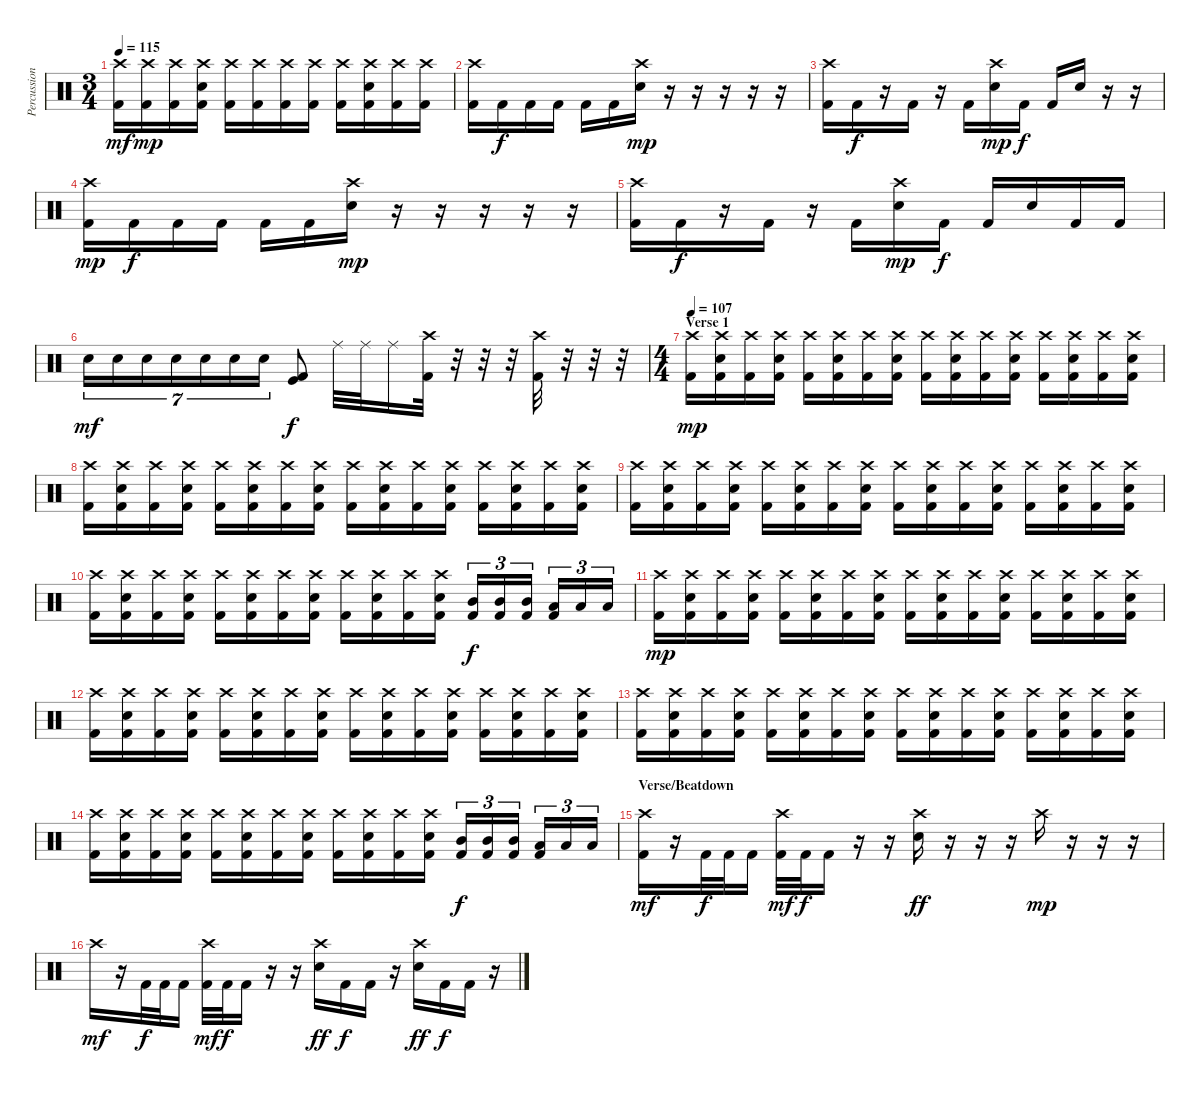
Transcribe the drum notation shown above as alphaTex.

\track ("Percussion" "Percussion") {instrument percussion}
\staff {score}
\articulation defaults
\ts (3 4)
\tempo 115
\clef neutral
\ks c
("Crash high (hit)" "Kick (hit) 2").16{dy mf} ("Crash high (hit)" "Kick (hit) 2").16{dy mp} ("Crash high (hit)" "Kick (hit) 2").16 ("Crash high (hit)" "Electric Snare (hit)" "Kick (hit) 2").16 ("Crash high (hit)" "Kick (hit) 2").16 ("Crash high (hit)" "Kick (hit) 2").16 ("Crash high (hit)" "Kick (hit) 2").16 ("Crash high (hit)" "Kick (hit) 2").16 ("Crash high (hit)" "Kick (hit) 2").16 ("Crash high (hit)" "Electric Snare (hit)" "Kick (hit) 2").16 ("Crash high (hit)" "Kick (hit) 2").16 ("Crash high (hit)" "Kick (hit) 2").16 |
("Crash high (hit)" "Kick (hit) 2").16 "Kick (hit) 2".16{dy f} "Kick (hit) 2".16 "Kick (hit) 2".16 "Kick (hit) 2".16 "Kick (hit) 2".16 ("Crash high (hit)" "Electric Snare (hit)").16{dy mp} r.16 r.16 r.16 r.16 r.16 |
("Crash high (hit)" "Kick (hit) 2").16 "Kick (hit) 2".16{dy f} r.16 "Kick (hit) 2".16 r.16 "Kick (hit) 2".16 ("Crash high (hit)" "Electric Snare (hit)").16{dy mp} "Kick (hit) 2".16{dy f} "Kick (hit) 2".16 "Electric Snare (hit)".16 r.16 r.16 |
("Crash high (hit)" "Kick (hit) 2").16{dy mp} "Kick (hit) 2".16{dy f} "Kick (hit) 2".16 "Kick (hit) 2".16 "Kick (hit) 2".16 "Kick (hit) 2".16 ("Crash high (hit)" "Electric Snare (hit)").16{dy mp} r.16 r.16 r.16 r.16 r.16 |
("Crash high (hit)" "Kick (hit) 2").16 "Kick (hit) 2".16{dy f} r.16 "Kick (hit) 2".16 r.16 "Kick (hit) 2".16 ("Crash high (hit)" "Electric Snare (hit)").16{dy mp} "Kick (hit) 2".16{dy f} "Kick (hit) 2".16 "Electric Snare (hit)".16 "Kick (hit) 2".16 "Kick (hit) 2".16 |
"Electric Snare (hit)".16{tu (7 4) dy mf} "Electric Snare (hit)".16{tu (7 4)} "Electric Snare (hit)".16{tu (7 4)} "Electric Snare (hit)".16{tu (7 4)} "Electric Snare (hit)".16{tu (7 4)} "Electric Snare (hit)".16{tu (7 4)} "Electric Snare (hit)".16{tu (7 4)} ("Kick (hit) 2" "Kick (hit)").8{dy f} "Ride (middle)".32 "Ride (middle)".32 "Ride (middle)".16 ("Kick (hit) 2" "Crash high (hit)").32 r.32 r.32 r.32 ("Kick (hit) 2" "Crash high (hit)").32 r.32 r.32 r.32 |
\ts (4 4)
\section ("" "Verse 1")
\tempo 107
("Crash high (hit)" "Kick (hit) 2").16{dy mp} ("Crash high (hit)" "Electric Snare (hit)" "Kick (hit) 2").16 ("Crash high (hit)" "Kick (hit) 2").16 ("Crash high (hit)" "Electric Snare (hit)" "Kick (hit) 2").16 ("Crash high (hit)" "Kick (hit) 2").16 ("Crash high (hit)" "Electric Snare (hit)" "Kick (hit) 2").16 ("Crash high (hit)" "Kick (hit) 2").16 ("Crash high (hit)" "Electric Snare (hit)" "Kick (hit) 2").16 ("Crash high (hit)" "Kick (hit) 2").16 ("Crash high (hit)" "Electric Snare (hit)" "Kick (hit) 2").16 ("Crash high (hit)" "Kick (hit) 2").16 ("Crash high (hit)" "Electric Snare (hit)" "Kick (hit) 2").16 ("Crash high (hit)" "Kick (hit) 2").16 ("Crash high (hit)" "Electric Snare (hit)" "Kick (hit) 2").16 ("Crash high (hit)" "Kick (hit) 2").16 ("Crash high (hit)" "Electric Snare (hit)" "Kick (hit) 2").16 |
("Crash high (hit)" "Kick (hit) 2").16 ("Crash high (hit)" "Electric Snare (hit)" "Kick (hit) 2").16 ("Crash high (hit)" "Kick (hit) 2").16 ("Crash high (hit)" "Electric Snare (hit)" "Kick (hit) 2").16 ("Crash high (hit)" "Kick (hit) 2").16 ("Crash high (hit)" "Electric Snare (hit)" "Kick (hit) 2").16 ("Crash high (hit)" "Kick (hit) 2").16 ("Crash high (hit)" "Electric Snare (hit)" "Kick (hit) 2").16 ("Crash high (hit)" "Kick (hit) 2").16 ("Crash high (hit)" "Electric Snare (hit)" "Kick (hit) 2").16 ("Crash high (hit)" "Kick (hit) 2").16 ("Crash high (hit)" "Electric Snare (hit)" "Kick (hit) 2").16 ("Crash high (hit)" "Kick (hit) 2").16 ("Crash high (hit)" "Electric Snare (hit)" "Kick (hit) 2").16 ("Crash high (hit)" "Kick (hit) 2").16 ("Crash high (hit)" "Electric Snare (hit)" "Kick (hit) 2").16 |
("Crash high (hit)" "Kick (hit) 2").16 ("Crash high (hit)" "Electric Snare (hit)" "Kick (hit) 2").16 ("Crash high (hit)" "Kick (hit) 2").16 ("Crash high (hit)" "Electric Snare (hit)" "Kick (hit) 2").16 ("Crash high (hit)" "Kick (hit) 2").16 ("Crash high (hit)" "Electric Snare (hit)" "Kick (hit) 2").16 ("Crash high (hit)" "Kick (hit) 2").16 ("Crash high (hit)" "Electric Snare (hit)" "Kick (hit) 2").16 ("Crash high (hit)" "Kick (hit) 2").16 ("Crash high (hit)" "Electric Snare (hit)" "Kick (hit) 2").16 ("Crash high (hit)" "Kick (hit) 2").16 ("Crash high (hit)" "Electric Snare (hit)" "Kick (hit) 2").16 ("Crash high (hit)" "Kick (hit) 2").16 ("Crash high (hit)" "Electric Snare (hit)" "Kick (hit) 2").16 ("Crash high (hit)" "Kick (hit) 2").16 ("Crash high (hit)" "Electric Snare (hit)" "Kick (hit) 2").16 |
("Crash high (hit)" "Kick (hit) 2").16 ("Crash high (hit)" "Electric Snare (hit)" "Kick (hit) 2").16 ("Crash high (hit)" "Kick (hit) 2").16 ("Crash high (hit)" "Electric Snare (hit)" "Kick (hit) 2").16 ("Crash high (hit)" "Kick (hit) 2").16 ("Crash high (hit)" "Electric Snare (hit)" "Kick (hit) 2").16 ("Crash high (hit)" "Kick (hit) 2").16 ("Crash high (hit)" "Electric Snare (hit)" "Kick (hit) 2").16 ("Crash high (hit)" "Kick (hit) 2").16 ("Crash high (hit)" "Electric Snare (hit)" "Kick (hit) 2").16 ("Crash high (hit)" "Kick (hit) 2").16 ("Crash high (hit)" "Electric Snare (hit)" "Kick (hit) 2").16 ("Mid Tom (hit)" "Kick (hit) 2").16{tu (3 2) dy f} ("Mid Tom (hit)" "Kick (hit) 2").16{tu (3 2)} ("Mid Tom (hit)" "Kick (hit) 2").16{tu (3 2)} ("Low Tom (hit)" "Kick (hit) 2").16{tu (3 2)} "Low Tom (hit)".16{tu (3 2)} "Low Tom (hit)".16{tu (3 2)} |
("Crash high (hit)" "Kick (hit) 2").16{dy mp} ("Crash high (hit)" "Electric Snare (hit)" "Kick (hit) 2").16 ("Crash high (hit)" "Kick (hit) 2").16 ("Crash high (hit)" "Electric Snare (hit)" "Kick (hit) 2").16 ("Crash high (hit)" "Kick (hit) 2").16 ("Crash high (hit)" "Electric Snare (hit)" "Kick (hit) 2").16 ("Crash high (hit)" "Kick (hit) 2").16 ("Crash high (hit)" "Electric Snare (hit)" "Kick (hit) 2").16 ("Crash high (hit)" "Kick (hit) 2").16 ("Crash high (hit)" "Electric Snare (hit)" "Kick (hit) 2").16 ("Crash high (hit)" "Kick (hit) 2").16 ("Crash high (hit)" "Electric Snare (hit)" "Kick (hit) 2").16 ("Crash high (hit)" "Kick (hit) 2").16 ("Crash high (hit)" "Electric Snare (hit)" "Kick (hit) 2").16 ("Crash high (hit)" "Kick (hit) 2").16 ("Crash high (hit)" "Electric Snare (hit)" "Kick (hit) 2").16 |
("Crash high (hit)" "Kick (hit) 2").16 ("Crash high (hit)" "Electric Snare (hit)" "Kick (hit) 2").16 ("Crash high (hit)" "Kick (hit) 2").16 ("Crash high (hit)" "Electric Snare (hit)" "Kick (hit) 2").16 ("Crash high (hit)" "Kick (hit) 2").16 ("Crash high (hit)" "Electric Snare (hit)" "Kick (hit) 2").16 ("Crash high (hit)" "Kick (hit) 2").16 ("Crash high (hit)" "Electric Snare (hit)" "Kick (hit) 2").16 ("Crash high (hit)" "Kick (hit) 2").16 ("Crash high (hit)" "Electric Snare (hit)" "Kick (hit) 2").16 ("Crash high (hit)" "Kick (hit) 2").16 ("Crash high (hit)" "Electric Snare (hit)" "Kick (hit) 2").16 ("Crash high (hit)" "Kick (hit) 2").16 ("Crash high (hit)" "Electric Snare (hit)" "Kick (hit) 2").16 ("Crash high (hit)" "Kick (hit) 2").16 ("Crash high (hit)" "Electric Snare (hit)" "Kick (hit) 2").16 |
("Crash high (hit)" "Kick (hit) 2").16 ("Crash high (hit)" "Electric Snare (hit)" "Kick (hit) 2").16 ("Crash high (hit)" "Kick (hit) 2").16 ("Crash high (hit)" "Electric Snare (hit)" "Kick (hit) 2").16 ("Crash high (hit)" "Kick (hit) 2").16 ("Crash high (hit)" "Electric Snare (hit)" "Kick (hit) 2").16 ("Crash high (hit)" "Kick (hit) 2").16 ("Crash high (hit)" "Electric Snare (hit)" "Kick (hit) 2").16 ("Crash high (hit)" "Kick (hit) 2").16 ("Crash high (hit)" "Electric Snare (hit)" "Kick (hit) 2").16 ("Crash high (hit)" "Kick (hit) 2").16 ("Crash high (hit)" "Electric Snare (hit)" "Kick (hit) 2").16 ("Crash high (hit)" "Kick (hit) 2").16 ("Crash high (hit)" "Electric Snare (hit)" "Kick (hit) 2").16 ("Crash high (hit)" "Kick (hit) 2").16 ("Crash high (hit)" "Electric Snare (hit)" "Kick (hit) 2").16 |
("Crash high (hit)" "Kick (hit) 2").16 ("Crash high (hit)" "Electric Snare (hit)" "Kick (hit) 2").16 ("Crash high (hit)" "Kick (hit) 2").16 ("Crash high (hit)" "Electric Snare (hit)" "Kick (hit) 2").16 ("Crash high (hit)" "Kick (hit) 2").16 ("Crash high (hit)" "Electric Snare (hit)" "Kick (hit) 2").16 ("Crash high (hit)" "Kick (hit) 2").16 ("Crash high (hit)" "Electric Snare (hit)" "Kick (hit) 2").16 ("Crash high (hit)" "Kick (hit) 2").16 ("Crash high (hit)" "Electric Snare (hit)" "Kick (hit) 2").16 ("Crash high (hit)" "Kick (hit) 2").16 ("Crash high (hit)" "Electric Snare (hit)" "Kick (hit) 2").16 ("Mid Tom (hit)" "Kick (hit) 2").16{tu (3 2) dy f} ("Mid Tom (hit)" "Kick (hit) 2").16{tu (3 2)} ("Mid Tom (hit)" "Kick (hit) 2").16{tu (3 2)} ("Low Tom (hit)" "Kick (hit) 2").16{tu (3 2)} "Low Tom (hit)".16{tu (3 2)} "Low Tom (hit)".16{tu (3 2)} |
\section ("" "Verse/Beatdown")
("Crash high (hit)" "Kick (hit) 2").16{dy mf} r.16 "Kick (hit) 2".32{dy f} "Kick (hit) 2".32 "Kick (hit) 2".16 ("Crash high (hit)" "Kick (hit) 2").32{dy mf} "Kick (hit) 2".32{dy f} "Kick (hit) 2".16 r.16 r.16 ("Crash high (hit)" "Electric Snare (hit)").16{dy ff} r.16 r.16 r.16 "Crash high (hit)".16{dy mp} r.16 r.16 r.16 |
"Crash high (hit)".16{dy mf} r.16 "Kick (hit) 2".32{dy f} "Kick (hit) 2".32 "Kick (hit) 2".16 ("Crash high (hit)" "Kick (hit) 2").32{dy mf} "Kick (hit) 2".32{dy f} "Kick (hit) 2".16 r.16 r.16 ("Crash high (hit)" "Electric Snare (hit)").16{dy ff} "Kick (hit) 2".16{dy f} "Kick (hit) 2".16 r.16 ("Crash high (hit)" "Electric Snare (hit)").16{dy ff} "Kick (hit) 2".16{dy f} "Kick (hit) 2".16 r.16
